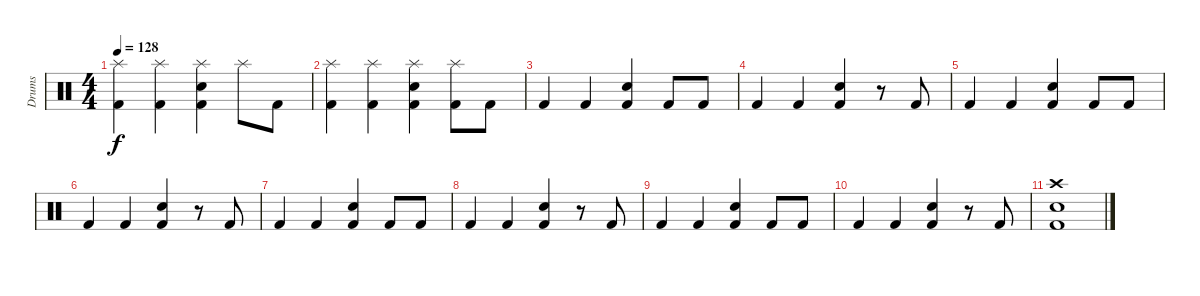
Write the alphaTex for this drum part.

\track ("Drums" "Drums") {instrument percussion}
\staff {score}
\articulation defaults
\ts (4 4)
\tempo 128
\clef neutral
\ks c
("Splash (hit)" "Kick (hit) 2").4{dy f} ("Splash (hit)" "Kick (hit) 2").4 ("Splash (hit)" "Electric Snare (hit)" "Kick (hit) 2").4 "Splash (hit)".8 "Kick (hit) 2".8 |
("Splash (hit)" "Kick (hit) 2").4 ("Splash (hit)" "Kick (hit) 2").4 ("Splash (hit)" "Electric Snare (hit)" "Kick (hit) 2").4 ("Splash (hit)" "Kick (hit) 2").8 "Kick (hit) 2".8 |
"Kick (hit) 2".4 "Kick (hit) 2".4 ("Electric Snare (hit)" "Kick (hit) 2").4 "Kick (hit) 2".8 "Kick (hit) 2".8 |
"Kick (hit) 2".4 "Kick (hit) 2".4 ("Electric Snare (hit)" "Kick (hit) 2").4 r.8 "Kick (hit) 2".8 |
"Kick (hit) 2".4 "Kick (hit) 2".4 ("Electric Snare (hit)" "Kick (hit) 2").4 "Kick (hit) 2".8 "Kick (hit) 2".8 |
"Kick (hit) 2".4 "Kick (hit) 2".4 ("Electric Snare (hit)" "Kick (hit) 2").4 r.8 "Kick (hit) 2".8 |
"Kick (hit) 2".4 "Kick (hit) 2".4 ("Electric Snare (hit)" "Kick (hit) 2").4 "Kick (hit) 2".8 "Kick (hit) 2".8 |
"Kick (hit) 2".4 "Kick (hit) 2".4 ("Electric Snare (hit)" "Kick (hit) 2").4 r.8 "Kick (hit) 2".8 |
"Kick (hit) 2".4 "Kick (hit) 2".4 ("Electric Snare (hit)" "Kick (hit) 2").4 "Kick (hit) 2".8 "Kick (hit) 2".8 |
"Kick (hit) 2".4 "Kick (hit) 2".4 ("Electric Snare (hit)" "Kick (hit) 2").4 r.8 "Kick (hit) 2".8 |
("Electric Snare (hit)" "Kick (hit) 2" "Crash high (hit)").1
